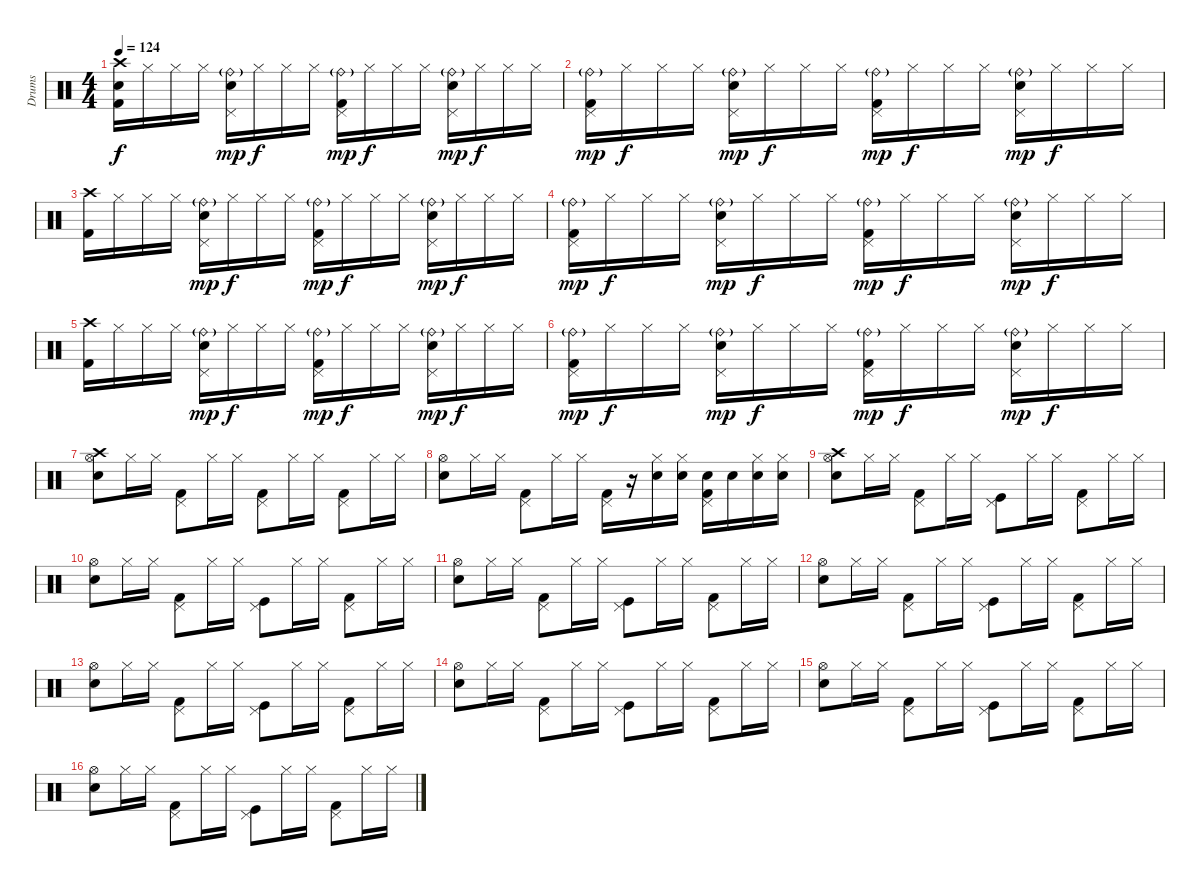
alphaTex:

\track ("Drums" "Drums") {instrument percussion}
\staff {score}
\articulation defaults
\ts (4 4)
\tempo 124
\clef neutral
\ks c
("Electric Snare (hit)" "Crash high (hit)" "Kick (hit) 2").16{dy f} "Hi-Hat (closed)".16 "Hi-Hat (closed)".16 "Hi-Hat (closed)".16 ("Ride (bell)"{g} "Pedal Hi-Hat (hit)" "Snare (hit) 2").16{dy mp} "Hi-Hat (closed)".16{dy f} "Hi-Hat (closed)".16 "Hi-Hat (closed)".16 ("Ride (bell)"{g} "Pedal Hi-Hat (hit)" "Kick (hit) 2").16{dy mp} "Hi-Hat (closed)".16{dy f} "Hi-Hat (closed)".16 "Hi-Hat (closed)".16 ("Ride (bell)"{g} "Pedal Hi-Hat (hit)" "Snare (hit) 2").16{dy mp} "Hi-Hat (closed)".16{dy f} "Hi-Hat (closed)".16 "Hi-Hat (closed)".16 |
("Ride (bell)"{g} "Pedal Hi-Hat (hit)" "Kick (hit) 2").16{dy mp} "Hi-Hat (closed)".16{dy f} "Hi-Hat (closed)".16 "Hi-Hat (closed)".16 ("Ride (bell)"{g} "Pedal Hi-Hat (hit)" "Snare (hit) 2").16{dy mp} "Hi-Hat (closed)".16{dy f} "Hi-Hat (closed)".16 "Hi-Hat (closed)".16 ("Ride (bell)"{g} "Pedal Hi-Hat (hit)" "Kick (hit) 2").16{dy mp} "Hi-Hat (closed)".16{dy f} "Hi-Hat (closed)".16 "Hi-Hat (closed)".16 ("Ride (bell)"{g} "Pedal Hi-Hat (hit)" "Snare (hit) 2").16{dy mp} "Hi-Hat (closed)".16{dy f} "Hi-Hat (closed)".16 "Hi-Hat (closed)".16 |
("Crash high (hit)" "Kick (hit) 2").16 "Hi-Hat (closed)".16 "Hi-Hat (closed)".16 "Hi-Hat (closed)".16 ("Ride (bell)"{g} "Pedal Hi-Hat (hit)" "Snare (hit) 2").16{dy mp} "Hi-Hat (closed)".16{dy f} "Hi-Hat (closed)".16 "Hi-Hat (closed)".16 ("Ride (bell)"{g} "Pedal Hi-Hat (hit)" "Kick (hit) 2").16{dy mp} "Hi-Hat (closed)".16{dy f} "Hi-Hat (closed)".16 "Hi-Hat (closed)".16 ("Ride (bell)"{g} "Pedal Hi-Hat (hit)" "Snare (hit) 2").16{dy mp} "Hi-Hat (closed)".16{dy f} "Hi-Hat (closed)".16 "Hi-Hat (closed)".16 |
("Ride (bell)"{g} "Pedal Hi-Hat (hit)" "Kick (hit) 2").16{dy mp} "Hi-Hat (closed)".16{dy f} "Hi-Hat (closed)".16 "Hi-Hat (closed)".16 ("Ride (bell)"{g} "Pedal Hi-Hat (hit)" "Snare (hit) 2").16{dy mp} "Hi-Hat (closed)".16{dy f} "Hi-Hat (closed)".16 "Hi-Hat (closed)".16 ("Ride (bell)"{g} "Pedal Hi-Hat (hit)" "Kick (hit) 2").16{dy mp} "Hi-Hat (closed)".16{dy f} "Hi-Hat (closed)".16 "Hi-Hat (closed)".16 ("Ride (bell)"{g} "Pedal Hi-Hat (hit)" "Snare (hit) 2").16{dy mp} "Hi-Hat (closed)".16{dy f} "Hi-Hat (closed)".16 "Hi-Hat (closed)".16 |
("Crash high (hit)" "Kick (hit) 2").16 "Hi-Hat (closed)".16 "Hi-Hat (closed)".16 "Hi-Hat (closed)".16 ("Ride (bell)"{g} "Pedal Hi-Hat (hit)" "Snare (hit) 2").16{dy mp} "Hi-Hat (closed)".16{dy f} "Hi-Hat (closed)".16 "Hi-Hat (closed)".16 ("Ride (bell)"{g} "Pedal Hi-Hat (hit)" "Kick (hit) 2").16{dy mp} "Hi-Hat (closed)".16{dy f} "Hi-Hat (closed)".16 "Hi-Hat (closed)".16 ("Ride (bell)"{g} "Pedal Hi-Hat (hit)" "Snare (hit) 2").16{dy mp} "Hi-Hat (closed)".16{dy f} "Hi-Hat (closed)".16 "Hi-Hat (closed)".16 |
("Ride (bell)"{g} "Pedal Hi-Hat (hit)" "Kick (hit) 2").16{dy mp} "Hi-Hat (closed)".16{dy f} "Hi-Hat (closed)".16 "Hi-Hat (closed)".16 ("Ride (bell)"{g} "Pedal Hi-Hat (hit)" "Snare (hit) 2").16{dy mp} "Hi-Hat (closed)".16{dy f} "Hi-Hat (closed)".16 "Hi-Hat (closed)".16 ("Ride (bell)"{g} "Pedal Hi-Hat (hit)" "Kick (hit) 2").16{dy mp} "Hi-Hat (closed)".16{dy f} "Hi-Hat (closed)".16 "Hi-Hat (closed)".16 ("Ride (bell)"{g} "Pedal Hi-Hat (hit)" "Snare (hit) 2").16{dy mp} "Hi-Hat (closed)".16{dy f} "Hi-Hat (closed)".16 "Hi-Hat (closed)".16 |
("Crash high (hit)" "Hi-Hat (open)" "Snare (hit) 2").8 "Hi-Hat (closed)".16 "Hi-Hat (closed)".16 ("Pedal Hi-Hat (hit)" "Kick (hit) 2").8 "Hi-Hat (closed)".16 "Hi-Hat (closed)".16 ("Pedal Hi-Hat (hit)" "Kick (hit) 2").8 "Hi-Hat (closed)".16 "Hi-Hat (closed)".16 ("Pedal Hi-Hat (hit)" "Kick (hit) 2").8 "Hi-Hat (closed)".16 "Hi-Hat (closed)".16 |
("Hi-Hat (open)" "Snare (hit) 2").8 "Hi-Hat (closed)".16 "Hi-Hat (closed)".16 ("Pedal Hi-Hat (hit)" "Kick (hit) 2").8 "Hi-Hat (closed)".16 "Hi-Hat (closed)".16 ("Pedal Hi-Hat (hit)" "Kick (hit) 2").16 r.16 ("Snare (hit) 2" "Hi-Hat (closed)").16 ("Electric Snare (hit)" "Hi-Hat (closed)").16 ("Snare (hit) 2" "Pedal Hi-Hat (hit)" "Kick (hit) 2").16 "Electric Snare (hit)".16 ("Snare (hit) 2" "Hi-Hat (closed)").16 ("Electric Snare (hit)" "Hi-Hat (closed)").16 |
("Crash high (hit)" "Hi-Hat (open)" "Snare (hit) 2").8 "Hi-Hat (closed)".16 "Hi-Hat (closed)".16 ("Pedal Hi-Hat (hit)" "Kick (hit) 2").8 "Hi-Hat (closed)".16 "Hi-Hat (closed)".16 ("Pedal Hi-Hat (hit)" "Kick (hit)").8 "Hi-Hat (closed)".16 "Hi-Hat (closed)".16 ("Pedal Hi-Hat (hit)" "Kick (hit) 2").8 "Hi-Hat (closed)".16 "Hi-Hat (closed)".16 |
("Hi-Hat (open)" "Snare (hit) 2").8 "Hi-Hat (closed)".16 "Hi-Hat (closed)".16 ("Pedal Hi-Hat (hit)" "Kick (hit) 2").8 "Hi-Hat (closed)".16 "Hi-Hat (closed)".16 ("Pedal Hi-Hat (hit)" "Kick (hit)").8 "Hi-Hat (closed)".16 "Hi-Hat (closed)".16 ("Pedal Hi-Hat (hit)" "Kick (hit) 2").8 "Hi-Hat (closed)".16 "Hi-Hat (closed)".16 |
("Hi-Hat (open)" "Snare (hit) 2").8 "Hi-Hat (closed)".16 "Hi-Hat (closed)".16 ("Pedal Hi-Hat (hit)" "Kick (hit) 2").8 "Hi-Hat (closed)".16 "Hi-Hat (closed)".16 ("Pedal Hi-Hat (hit)" "Kick (hit)").8 "Hi-Hat (closed)".16 "Hi-Hat (closed)".16 ("Pedal Hi-Hat (hit)" "Kick (hit) 2").8 "Hi-Hat (closed)".16 "Hi-Hat (closed)".16 |
("Hi-Hat (open)" "Snare (hit) 2").8 "Hi-Hat (closed)".16 "Hi-Hat (closed)".16 ("Pedal Hi-Hat (hit)" "Kick (hit) 2").8 "Hi-Hat (closed)".16 "Hi-Hat (closed)".16 ("Pedal Hi-Hat (hit)" "Kick (hit)").8 "Hi-Hat (closed)".16 "Hi-Hat (closed)".16 ("Pedal Hi-Hat (hit)" "Kick (hit) 2").8 "Hi-Hat (closed)".16 "Hi-Hat (closed)".16 |
("Hi-Hat (open)" "Snare (hit) 2").8 "Hi-Hat (closed)".16 "Hi-Hat (closed)".16 ("Pedal Hi-Hat (hit)" "Kick (hit) 2").8 "Hi-Hat (closed)".16 "Hi-Hat (closed)".16 ("Pedal Hi-Hat (hit)" "Kick (hit)").8 "Hi-Hat (closed)".16 "Hi-Hat (closed)".16 ("Pedal Hi-Hat (hit)" "Kick (hit) 2").8 "Hi-Hat (closed)".16 "Hi-Hat (closed)".16 |
("Hi-Hat (open)" "Snare (hit) 2").8 "Hi-Hat (closed)".16 "Hi-Hat (closed)".16 ("Pedal Hi-Hat (hit)" "Kick (hit) 2").8 "Hi-Hat (closed)".16 "Hi-Hat (closed)".16 ("Pedal Hi-Hat (hit)" "Kick (hit)").8 "Hi-Hat (closed)".16 "Hi-Hat (closed)".16 ("Pedal Hi-Hat (hit)" "Kick (hit) 2").8 "Hi-Hat (closed)".16 "Hi-Hat (closed)".16 |
("Hi-Hat (open)" "Snare (hit) 2").8 "Hi-Hat (closed)".16 "Hi-Hat (closed)".16 ("Pedal Hi-Hat (hit)" "Kick (hit) 2").8 "Hi-Hat (closed)".16 "Hi-Hat (closed)".16 ("Pedal Hi-Hat (hit)" "Kick (hit)").8 "Hi-Hat (closed)".16 "Hi-Hat (closed)".16 ("Pedal Hi-Hat (hit)" "Kick (hit) 2").8 "Hi-Hat (closed)".16 "Hi-Hat (closed)".16 |
("Hi-Hat (open)" "Snare (hit) 2").8 "Hi-Hat (closed)".16 "Hi-Hat (closed)".16 ("Pedal Hi-Hat (hit)" "Kick (hit) 2").8 "Hi-Hat (closed)".16 "Hi-Hat (closed)".16 ("Pedal Hi-Hat (hit)" "Kick (hit)").8 "Hi-Hat (closed)".16 "Hi-Hat (closed)".16 ("Pedal Hi-Hat (hit)" "Kick (hit) 2").8 "Hi-Hat (closed)".16 "Hi-Hat (closed)".16
